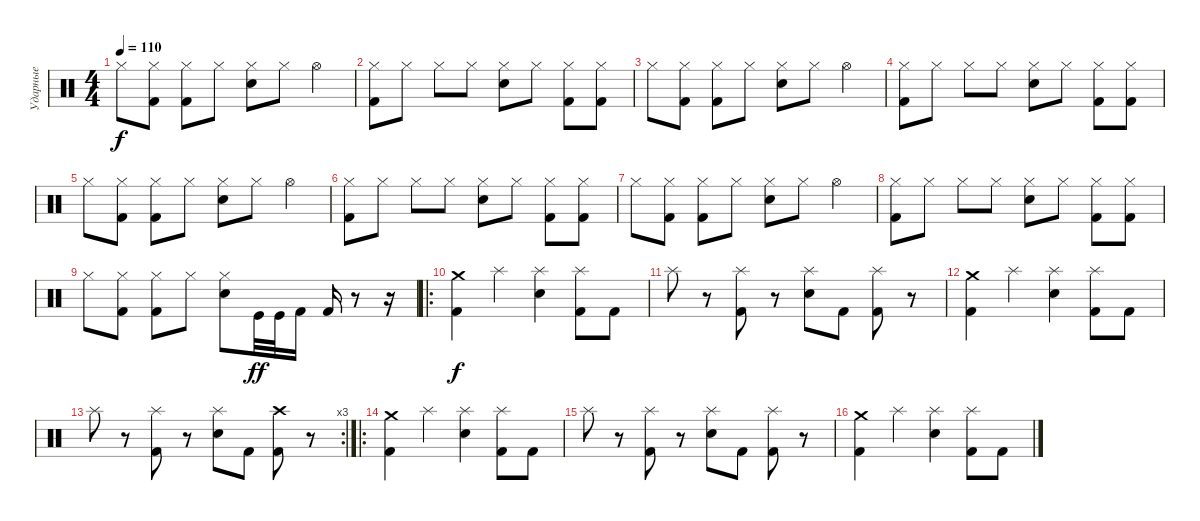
\track ("Ударные" "Ударные") {instrument percussion}
\staff {score}
\articulation defaults
\ts (4 4)
\tempo 110
\clef neutral
\ks c "Hi-Hat (closed)".8{dy f}
("Hi-Hat (closed)" "Kick (hit) 2").8 ("Hi-Hat (closed)" "Kick (hit) 2").8 "Hi-Hat (closed)".8 ("Hi-Hat (closed)" "Electric Snare (hit)").8 "Hi-Hat (closed)".8 "Hi-Hat (open)".4 |
("Hi-Hat (closed)" "Kick (hit) 2").8 "Hi-Hat (closed)".8 "Hi-Hat (closed)".8 "Hi-Hat (closed)".8 ("Hi-Hat (closed)" "Electric Snare (hit)").8 "Hi-Hat (closed)".8 ("Hi-Hat (closed)" "Kick (hit) 2").8 ("Hi-Hat (closed)" "Kick (hit) 2").8 |
"Hi-Hat (closed)".8 ("Hi-Hat (closed)" "Kick (hit) 2").8 ("Hi-Hat (closed)" "Kick (hit) 2").8 "Hi-Hat (closed)".8 ("Hi-Hat (closed)" "Electric Snare (hit)").8 "Hi-Hat (closed)".8 "Hi-Hat (open)".4 |
("Hi-Hat (closed)" "Kick (hit) 2").8 "Hi-Hat (closed)".8 "Hi-Hat (closed)".8 "Hi-Hat (closed)".8 ("Hi-Hat (closed)" "Electric Snare (hit)").8 "Hi-Hat (closed)".8 ("Hi-Hat (closed)" "Kick (hit) 2").8 ("Hi-Hat (closed)" "Kick (hit) 2").8 |
"Hi-Hat (closed)".8 ("Hi-Hat (closed)" "Kick (hit) 2").8 ("Hi-Hat (closed)" "Kick (hit) 2").8 "Hi-Hat (closed)".8 ("Hi-Hat (closed)" "Electric Snare (hit)").8 "Hi-Hat (closed)".8 "Hi-Hat (open)".4 |
("Hi-Hat (closed)" "Kick (hit) 2").8 "Hi-Hat (closed)".8 "Hi-Hat (closed)".8 "Hi-Hat (closed)".8 ("Hi-Hat (closed)" "Electric Snare (hit)").8 "Hi-Hat (closed)".8 ("Hi-Hat (closed)" "Kick (hit) 2").8 ("Hi-Hat (closed)" "Kick (hit) 2").8 |
"Hi-Hat (closed)".8 ("Hi-Hat (closed)" "Kick (hit) 2").8 ("Hi-Hat (closed)" "Kick (hit) 2").8 "Hi-Hat (closed)".8 ("Hi-Hat (closed)" "Electric Snare (hit)").8 "Hi-Hat (closed)".8 "Hi-Hat (open)".4 |
("Hi-Hat (closed)" "Kick (hit) 2").8 "Hi-Hat (closed)".8 "Hi-Hat (closed)".8 "Hi-Hat (closed)".8 ("Hi-Hat (closed)" "Electric Snare (hit)").8 "Hi-Hat (closed)".8 ("Hi-Hat (closed)" "Kick (hit) 2").8 ("Hi-Hat (closed)" "Kick (hit) 2").8 |
"Hi-Hat (closed)".8 ("Hi-Hat (closed)" "Kick (hit) 2").8 ("Hi-Hat (closed)" "Kick (hit) 2").8 "Hi-Hat (closed)".8 ("Hi-Hat (closed)" "Electric Snare (hit)").8 "Kick (hit)".32{dy ff} "Kick (hit)".32 "Kick (hit) 2".16 "Kick (hit) 2".16 r.8 r.16 |
\ro
("Crash medium (hit)" "Kick (hit) 2").4{dy f} "Splash (hit)".4 ("Splash (hit)" "Electric Snare (hit)").4 ("Splash (hit)" "Kick (hit) 2").8 "Kick (hit) 2".8 |
"Splash (hit)".8 r.8 ("Splash (hit)" "Kick (hit) 2").8 r.8 ("Splash (hit)" "Electric Snare (hit)").8 "Kick (hit) 2".8 ("Splash (hit)" "Kick (hit) 2").8 r.8 |
("Crash medium (hit)" "Kick (hit) 2").4 "Splash (hit)".4 ("Splash (hit)" "Electric Snare (hit)").4 ("Splash (hit)" "Kick (hit) 2").8 "Kick (hit) 2".8 |
\rc 3 "Splash (hit)".8
r.8 ("Splash (hit)" "Kick (hit) 2").8 r.8 ("Splash (hit)" "Electric Snare (hit)").8 "Kick (hit) 2".8 ("Crash high (hit)" "Kick (hit) 2").8 r.8 |
\ro
("Crash medium (hit)" "Kick (hit) 2").4 "Splash (hit)".4 ("Splash (hit)" "Electric Snare (hit)").4 ("Splash (hit)" "Kick (hit) 2").8 "Kick (hit) 2".8 |
"Splash (hit)".8 r.8 ("Splash (hit)" "Kick (hit) 2").8 r.8 ("Splash (hit)" "Electric Snare (hit)").8 "Kick (hit) 2".8 ("Splash (hit)" "Kick (hit) 2").8 r.8 |
("Crash medium (hit)" "Kick (hit) 2").4 "Splash (hit)".4 ("Splash (hit)" "Electric Snare (hit)").4 ("Splash (hit)" "Kick (hit) 2").8 "Kick (hit) 2".8
